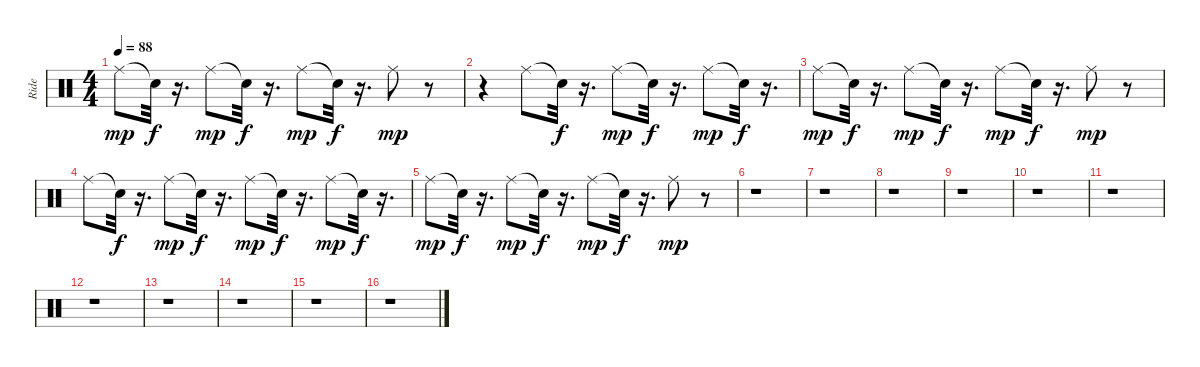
\track ("Ride" "Ride") {instrument percussion}
\staff {score}
\articulation defaults
\ts (4 4)
\tempo 88
\clef neutral
\ks c "Ride (middle)".8{dy mp} "Snare (hit)"{t}.32{dy f}
r.16{d} "Ride (middle)".8{dy mp} "Snare (hit)"{t}.32{dy f} r.16{d} "Ride (middle)".8{dy mp} "Snare (hit)"{t}.32{dy f} r.16{d} "Ride (middle)".8{dy mp} r.8 |
r.4 "Ride (middle)".8 "Snare (hit)"{t}.32{dy f} r.16{d} "Ride (middle)".8{dy mp} "Snare (hit)"{t}.32{dy f} r.16{d} "Ride (middle)".8{dy mp} "Snare (hit)"{t}.32{dy f} r.16{d} |
"Ride (middle)".8{dy mp} "Snare (hit)"{t}.32{dy f} r.16{d} "Ride (middle)".8{dy mp} "Snare (hit)"{t}.32{dy f} r.16{d} "Ride (middle)".8{dy mp} "Snare (hit)"{t}.32{dy f} r.16{d} "Ride (middle)".8{dy mp} r.8 |
"Ride (middle)".8 "Snare (hit)"{t}.32{dy f} r.16{d} "Ride (middle)".8{dy mp} "Snare (hit)"{t}.32{dy f} r.16{d} "Ride (middle)".8{dy mp} "Snare (hit)"{t}.32{dy f} r.16{d} "Ride (middle)".8{dy mp} "Snare (hit)"{t}.32{dy f} r.16{d} |
"Ride (middle)".8{dy mp} "Snare (hit)"{t}.32{dy f} r.16{d} "Ride (middle)".8{dy mp} "Snare (hit)"{t}.32{dy f} r.16{d} "Ride (middle)".8{dy mp} "Snare (hit)"{t}.32{dy f} r.16{d} "Ride (middle)".8{dy mp} r.8 |
r.1 |
r.1 |
r.1 |
r.1 |
r.1 |
r.1 |
r.1 |
r.1 |
r.1 |
r.1 |
r.1
